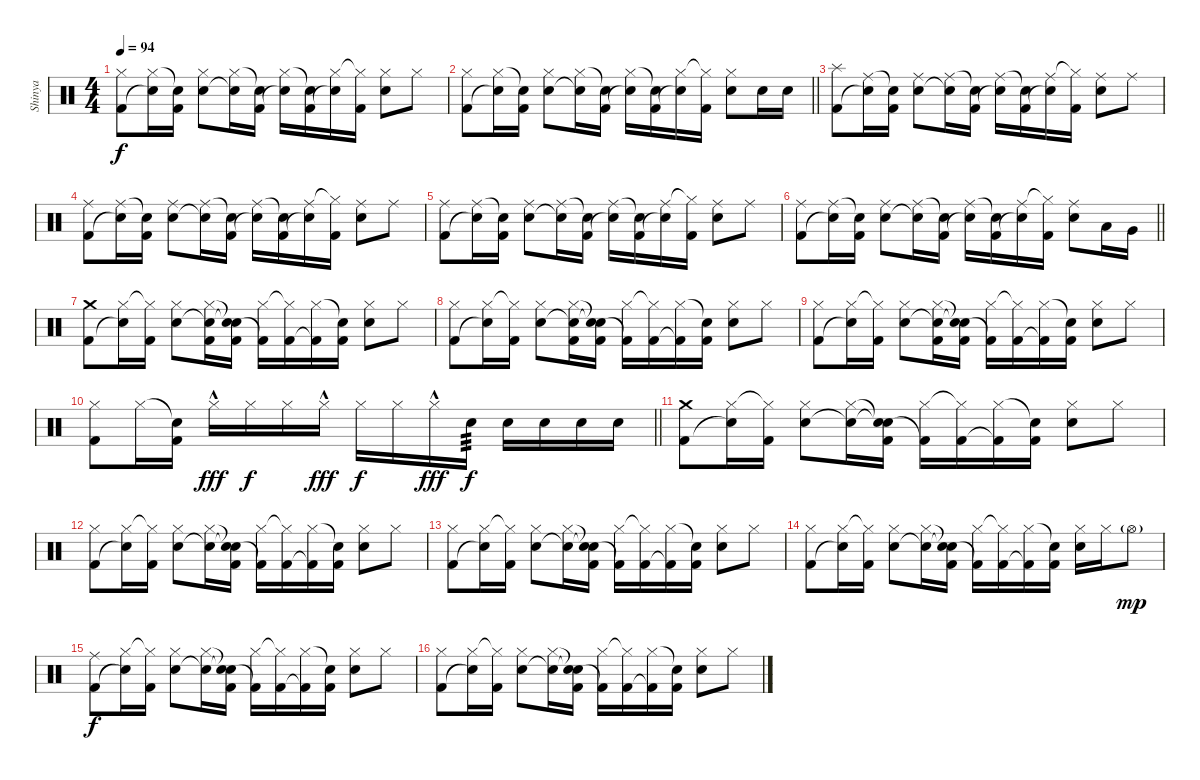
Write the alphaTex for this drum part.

\track ("Shinya" "Shinya") {instrument percussion}
\staff {score}
\articulation defaults
\ts (4 4)
\tempo 94
\clef neutral
\ks c
("Hi-Hat (closed)" "Kick (hit) 2").8{dy f} ("Hi-Hat (closed)" "Snare (hit)"{t}).16 ("Snare (hit)"{t} "Kick (hit) 2").16 ("Hi-Hat (closed)" "Snare (hit) 2").8 ("Hi-Hat (closed)" "Snare (hit)"{t}).16 ("Snare (hit)"{t} "Kick (hit) 2").16 ("Hi-Hat (closed)" "Snare (hit)"{t}).16 ("Snare (hit)"{t} "Kick (hit) 2").16 ("Hi-Hat (closed)" "Snare (hit)"{t}).16 ("Hi-Hat (closed)"{t} "Kick (hit) 2").16 ("Hi-Hat (closed)" "Snare (hit) 2").8 "Hi-Hat (closed)".8 |
\barLineRight lightlight
("Hi-Hat (closed)" "Kick (hit) 2").8 ("Hi-Hat (closed)" "Snare (hit)"{t}).16 ("Snare (hit)"{t} "Kick (hit) 2").16 ("Hi-Hat (closed)" "Snare (hit) 2").8 ("Hi-Hat (closed)" "Snare (hit)"{t}).16 ("Snare (hit)"{t} "Kick (hit) 2").16 ("Hi-Hat (closed)" "Snare (hit)"{t}).16 ("Snare (hit)"{t} "Kick (hit) 2").16 ("Hi-Hat (closed)" "Snare (hit)"{t}).16 ("Hi-Hat (closed)"{t} "Kick (hit) 2").16 ("Hi-Hat (closed)" "Snare (hit) 2").8 "Snare (hit) 2".16 "Snare (hit) 2".16 |
("Splash (hit)" "Kick (hit) 2").8 ("Ride (middle)" "Snare (hit)"{t}).16 ("Snare (hit)"{t} "Kick (hit) 2").16 ("Ride (middle)" "Snare (hit) 2").8 ("Ride (middle)" "Snare (hit)"{t}).16 ("Snare (hit)"{t} "Kick (hit) 2").16 ("Ride (middle)" "Snare (hit)"{t}).16 ("Snare (hit)"{t} "Kick (hit) 2").16 ("Ride (middle)" "Snare (hit)"{t}).16 ("Hi-Hat (closed)"{t} "Kick (hit) 2").16 ("Ride (middle)" "Snare (hit) 2").8 "Ride (middle)".8 |
("Ride (middle)" "Kick (hit) 2").8 ("Ride (middle)" "Snare (hit)"{t}).16 ("Snare (hit)"{t} "Kick (hit) 2").16 ("Ride (middle)" "Snare (hit) 2").8 ("Ride (middle)" "Snare (hit)"{t}).16 ("Snare (hit)"{t} "Kick (hit) 2").16 ("Ride (middle)" "Snare (hit)"{t}).16 ("Snare (hit)"{t} "Kick (hit) 2").16 ("Ride (middle)" "Snare (hit)"{t}).16 ("Hi-Hat (closed)"{t} "Kick (hit) 2").16 ("Ride (middle)" "Snare (hit) 2").8 "Ride (middle)".8 |
("Ride (middle)" "Kick (hit) 2").8 ("Ride (middle)" "Snare (hit)"{t}).16 ("Snare (hit)"{t} "Kick (hit) 2").16 ("Ride (middle)" "Snare (hit) 2").8 ("Ride (middle)" "Snare (hit)"{t}).16 ("Snare (hit)"{t} "Kick (hit) 2").16 ("Ride (middle)" "Snare (hit)"{t}).16 ("Snare (hit)"{t} "Kick (hit) 2").16 ("Ride (middle)" "Snare (hit)"{t}).16 ("Hi-Hat (closed)"{t} "Kick (hit) 2").16 ("Ride (middle)" "Snare (hit) 2").8 "Ride (middle)".8 |
\barLineRight lightlight
("Ride (middle)" "Kick (hit) 2").8 ("Ride (middle)" "Snare (hit)"{t}).16 ("Snare (hit)"{t} "Kick (hit) 2").16 ("Ride (middle)" "Snare (hit) 2").8 ("Ride (middle)" "Snare (hit)"{t}).16 ("Snare (hit)"{t} "Kick (hit) 2").16 ("Ride (middle)" "Snare (hit)"{t}).16 ("Snare (hit)"{t} "Kick (hit) 2").16 ("Ride (middle)" "Snare (hit)"{t}).16 ("Hi-Hat (closed)"{t} "Kick (hit) 2").16 ("Ride (middle)" "Snare (hit) 2").8 "Low Tom (hit)".16 "Very Low Tom (hit)".16 |
("Crash medium (hit)" "Kick (hit) 2").8 ("Hi-Hat (closed)" "Snare (hit)"{t}).16 ("Hi-Hat (closed)"{t} "Kick (hit) 2").16 ("Hi-Hat (closed)" "Snare (hit) 2").8 ("Hi-Hat (closed)" "Snare (hit)"{t} "Kick (hit) 2").16 ("Snare (hit)"{t} "Snare (hit)"{t} "Kick (hit) 2").16 ("Hi-Hat (closed)" "Kick (hit) 2"{t}).16 ("Hi-Hat (closed)"{t} "Kick (hit) 2").16 ("Hi-Hat (closed)" "Kick (hit) 2"{t}).16 ("Snare (hit) 2"{t} "Kick (hit) 2").16 ("Hi-Hat (closed)" "Snare (hit) 2").8 "Hi-Hat (closed)".8 |
("Hi-Hat (closed)" "Kick (hit) 2").8 ("Hi-Hat (closed)" "Snare (hit)"{t}).16 ("Hi-Hat (closed)"{t} "Kick (hit) 2").16 ("Hi-Hat (closed)" "Snare (hit) 2").8 ("Hi-Hat (closed)" "Snare (hit)"{t} "Kick (hit) 2").16 ("Snare (hit)"{t} "Snare (hit)"{t} "Kick (hit) 2").16 ("Hi-Hat (closed)" "Kick (hit) 2"{t}).16 ("Hi-Hat (closed)"{t} "Kick (hit) 2").16 ("Hi-Hat (closed)" "Kick (hit) 2"{t}).16 ("Snare (hit) 2"{t} "Kick (hit) 2").16 ("Hi-Hat (closed)" "Snare (hit) 2").8 "Hi-Hat (closed)".8 |
("Hi-Hat (closed)" "Kick (hit) 2").8 ("Hi-Hat (closed)" "Snare (hit)"{t}).16 ("Hi-Hat (closed)"{t} "Kick (hit) 2").16 ("Hi-Hat (closed)" "Snare (hit) 2").8 ("Hi-Hat (closed)" "Snare (hit)"{t} "Kick (hit) 2").16 ("Snare (hit)"{t} "Snare (hit)"{t} "Kick (hit) 2").16 ("Hi-Hat (closed)" "Kick (hit) 2"{t}).16 ("Hi-Hat (closed)"{t} "Kick (hit) 2").16 ("Hi-Hat (closed)" "Kick (hit) 2"{t}).16 ("Snare (hit) 2"{t} "Kick (hit) 2").16 ("Hi-Hat (closed)" "Snare (hit) 2").8 "Hi-Hat (closed)".8 |
\barLineRight lightlight
("Hi-Hat (closed)" "Kick (hit) 2").8 "Hi-Hat (closed)".16 ("Snare (hit)"{t} "Kick (hit) 2").16 "Hi-Hat (closed)"{hac}.16{dy fff} "Hi-Hat (closed)".16{dy f} "Hi-Hat (closed)".16 "Hi-Hat (closed)"{hac}.16{dy fff} "Hi-Hat (closed)".16{dy f} "Hi-Hat (closed)".16 "Hi-Hat (closed)"{hac}.16{dy fff} "Snare (hit) 2".16{tp 3 dy f} "Snare (hit) 2".16 "Snare (hit) 2".16 "Snare (hit) 2".16 "Snare (hit) 2".16 |
("Crash medium (hit)" "Kick (hit) 2").8 ("Hi-Hat (closed)" "Snare (hit)"{t}).16 ("Hi-Hat (closed)"{t} "Kick (hit) 2").16 ("Hi-Hat (closed)" "Snare (hit) 2").8 ("Hi-Hat (closed)" "Snare (hit)"{t}).16 ("Snare (hit)"{t} "Snare (hit)"{t} "Kick (hit) 2").16 ("Hi-Hat (closed)" "Kick (hit) 2"{t}).16 ("Hi-Hat (closed)"{t} "Kick (hit) 2").16 ("Hi-Hat (closed)" "Kick (hit) 2"{t}).16 ("Snare (hit) 2"{t} "Kick (hit) 2").16 ("Hi-Hat (closed)" "Snare (hit) 2").8 "Hi-Hat (closed)".8 |
("Hi-Hat (closed)" "Kick (hit) 2").8 ("Hi-Hat (closed)" "Snare (hit)"{t}).16 ("Hi-Hat (closed)"{t} "Kick (hit) 2").16 ("Hi-Hat (closed)" "Snare (hit) 2").8 ("Hi-Hat (closed)" "Snare (hit)"{t}).16 ("Snare (hit)"{t} "Snare (hit)"{t} "Kick (hit) 2").16 ("Hi-Hat (closed)" "Kick (hit) 2"{t}).16 ("Hi-Hat (closed)"{t} "Kick (hit) 2").16 ("Hi-Hat (closed)" "Kick (hit) 2"{t}).16 ("Snare (hit) 2"{t} "Kick (hit) 2").16 ("Hi-Hat (closed)" "Snare (hit) 2").8 "Hi-Hat (closed)".8 |
("Hi-Hat (closed)" "Kick (hit) 2").8 ("Hi-Hat (closed)" "Snare (hit)"{t}).16 ("Hi-Hat (closed)"{t} "Kick (hit) 2").16 ("Hi-Hat (closed)" "Snare (hit) 2").8 ("Hi-Hat (closed)" "Snare (hit)"{t}).16 ("Snare (hit)"{t} "Snare (hit)"{t} "Kick (hit) 2").16 ("Hi-Hat (closed)" "Kick (hit) 2"{t}).16 ("Hi-Hat (closed)"{t} "Kick (hit) 2").16 ("Hi-Hat (closed)" "Kick (hit) 2"{t}).16 ("Snare (hit) 2"{t} "Kick (hit) 2").16 ("Hi-Hat (closed)" "Snare (hit) 2").8 "Hi-Hat (closed)".8 |
("Hi-Hat (closed)" "Kick (hit) 2").8 ("Hi-Hat (closed)" "Snare (hit)"{t}).16 ("Hi-Hat (closed)"{t} "Kick (hit) 2").16 ("Hi-Hat (closed)" "Snare (hit) 2").8 ("Hi-Hat (closed)" "Snare (hit)"{t}).16 ("Snare (hit)"{t} "Snare (hit)"{t} "Kick (hit) 2").16 ("Hi-Hat (closed)" "Kick (hit) 2"{t}).16 ("Hi-Hat (closed)"{t} "Kick (hit) 2").16 ("Hi-Hat (closed)" "Kick (hit) 2"{t}).16 ("Snare (hit) 2"{t} "Kick (hit) 2").16 ("Hi-Hat (closed)" "Snare (hit) 2").16 "Hi-Hat (closed)".16 "Hi-Hat (open)"{g}.8{dy mp} |
("Ride (middle)" "Kick (hit) 2").8{dy f} ("Hi-Hat (closed)" "Snare (hit)"{t}).16 ("Hi-Hat (closed)"{t} "Kick (hit) 2").16 ("Hi-Hat (closed)" "Snare (hit) 2").8 ("Hi-Hat (closed)" "Snare (hit)"{t}).16 ("Snare (hit)"{t} "Snare (hit)"{t} "Kick (hit) 2").16 ("Hi-Hat (closed)" "Kick (hit) 2"{t}).16 ("Hi-Hat (closed)"{t} "Kick (hit) 2").16 ("Hi-Hat (closed)" "Kick (hit) 2"{t}).16 ("Snare (hit) 2"{t} "Kick (hit) 2").16 ("Hi-Hat (closed)" "Snare (hit) 2").8 "Hi-Hat (closed)".8 |
("Hi-Hat (closed)" "Kick (hit) 2").8 ("Hi-Hat (closed)" "Snare (hit)"{t}).16 ("Hi-Hat (closed)"{t} "Kick (hit) 2").16 ("Hi-Hat (closed)" "Snare (hit) 2").8 ("Hi-Hat (closed)" "Snare (hit)"{t}).16 ("Snare (hit)"{t} "Snare (hit)"{t} "Kick (hit) 2").16 ("Hi-Hat (closed)" "Kick (hit) 2"{t}).16 ("Hi-Hat (closed)"{t} "Kick (hit) 2").16 ("Hi-Hat (closed)" "Kick (hit) 2"{t}).16 ("Snare (hit) 2"{t} "Kick (hit) 2").16 ("Hi-Hat (closed)" "Snare (hit) 2").8 "Hi-Hat (closed)".8
